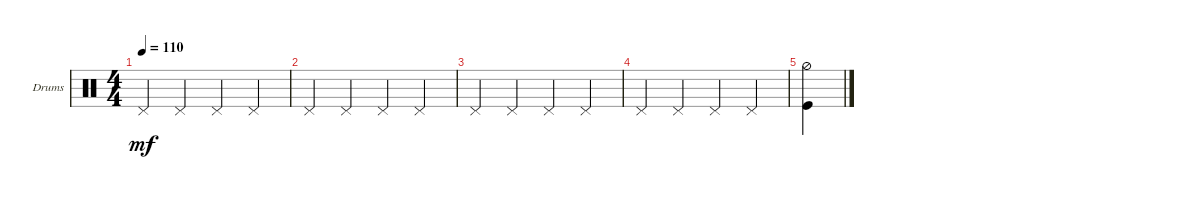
\defaultSystemsLayout 4
\bracketExtendMode groupsimilarinstruments
\firstSystemTrackNameOrientation horizontal
\otherSystemsTrackNameOrientation horizontal
\track ("Fabrizio" "Drums") {instrument percussion}
\staff {score}
\articulation defaults
\ts (4 4)
\tempo 110
\clef neutral
\ks c "Pedal Hi-Hat (hit)".4{dy mf} "Pedal Hi-Hat (hit)".4 "Pedal Hi-Hat (hit)".4 "Pedal Hi-Hat (hit)".4
|
"Pedal Hi-Hat (hit)".4 "Pedal Hi-Hat (hit)".4 "Pedal Hi-Hat (hit)".4 "Pedal Hi-Hat (hit)".4 |
"Pedal Hi-Hat (hit)".4 "Pedal Hi-Hat (hit)".4 "Pedal Hi-Hat (hit)".4 "Pedal Hi-Hat (hit)".4 |
"Pedal Hi-Hat (hit)".4 "Pedal Hi-Hat (hit)".4 "Pedal Hi-Hat (hit)".4 "Pedal Hi-Hat (hit)".4 |
("Hi-Hat (half)" "Kick (hit)").4
